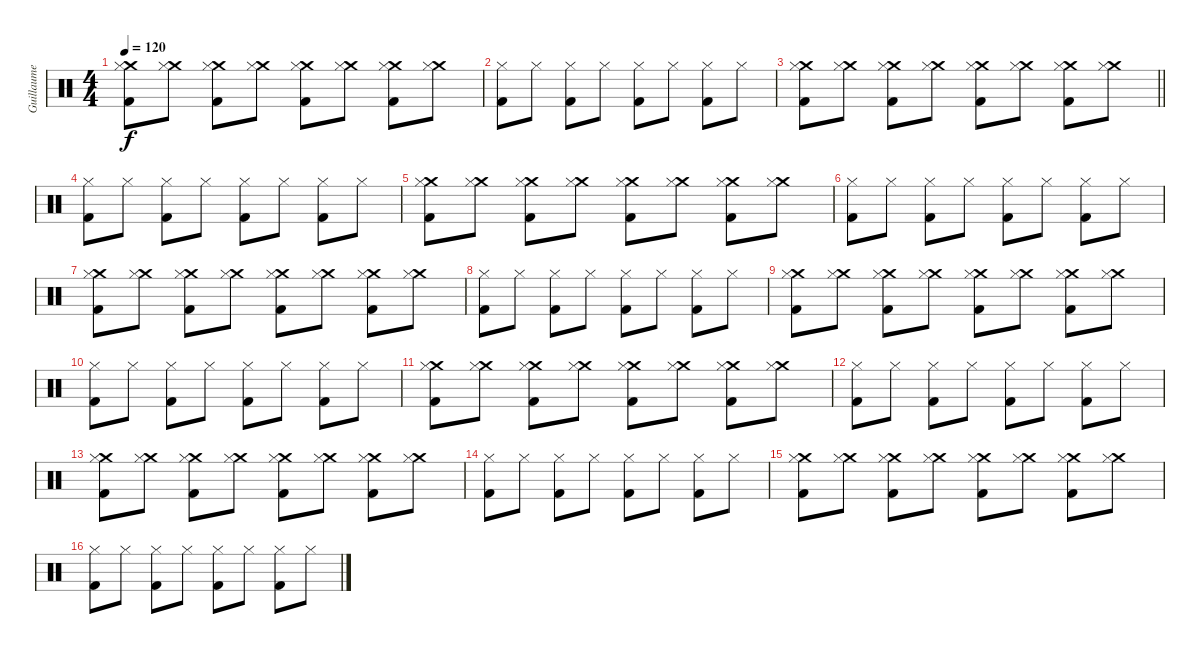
\track ("Guillaume (batterie)" "Guillaume ") {instrument percussion}
\staff {score}
\articulation defaults
\ts (4 4)
\tempo 120
\clef neutral
\ks c
("Crash medium (hit)" "Hi-Hat (closed)" "Kick (hit) 2").8{dy f volume 9} ("Crash medium (hit)" "Hi-Hat (closed)").8 ("Crash medium (hit)" "Hi-Hat (closed)" "Kick (hit) 2").8{volume 11} ("Crash medium (hit)" "Hi-Hat (closed)").8 ("Crash medium (hit)" "Hi-Hat (closed)" "Kick (hit) 2").8{volume 12} ("Crash medium (hit)" "Hi-Hat (closed)").8 ("Crash medium (hit)" "Hi-Hat (closed)" "Kick (hit) 2").8{volume 15} ("Crash medium (hit)" "Hi-Hat (closed)").8 |
("Hi-Hat (closed)" "Kick (hit) 2").8{volume 9} "Hi-Hat (closed)".8 ("Hi-Hat (closed)" "Kick (hit) 2").8 "Hi-Hat (closed)".8 ("Hi-Hat (closed)" "Kick (hit) 2").8 "Hi-Hat (closed)".8 ("Hi-Hat (closed)" "Kick (hit) 2").8 "Hi-Hat (closed)".8 |
\barLineRight lightlight
("Crash medium (hit)" "Hi-Hat (closed)" "Kick (hit) 2").8{volume 9} ("Crash medium (hit)" "Hi-Hat (closed)").8 ("Crash medium (hit)" "Hi-Hat (closed)" "Kick (hit) 2").8{volume 11} ("Crash medium (hit)" "Hi-Hat (closed)").8 ("Crash medium (hit)" "Hi-Hat (closed)" "Kick (hit) 2").8{volume 12} ("Crash medium (hit)" "Hi-Hat (closed)").8 ("Crash medium (hit)" "Hi-Hat (closed)" "Kick (hit) 2").8{volume 15} ("Crash medium (hit)" "Hi-Hat (closed)").8 |
("Hi-Hat (closed)" "Kick (hit) 2").8{volume 9} "Hi-Hat (closed)".8 ("Hi-Hat (closed)" "Kick (hit) 2").8 "Hi-Hat (closed)".8 ("Hi-Hat (closed)" "Kick (hit) 2").8 "Hi-Hat (closed)".8 ("Hi-Hat (closed)" "Kick (hit) 2").8 "Hi-Hat (closed)".8 |
("Crash medium (hit)" "Hi-Hat (closed)" "Kick (hit) 2").8{volume 9} ("Crash medium (hit)" "Hi-Hat (closed)").8 ("Crash medium (hit)" "Hi-Hat (closed)" "Kick (hit) 2").8{volume 11} ("Crash medium (hit)" "Hi-Hat (closed)").8 ("Crash medium (hit)" "Hi-Hat (closed)" "Kick (hit) 2").8{volume 12} ("Crash medium (hit)" "Hi-Hat (closed)").8 ("Crash medium (hit)" "Hi-Hat (closed)" "Kick (hit) 2").8{volume 15} ("Crash medium (hit)" "Hi-Hat (closed)").8 |
("Hi-Hat (closed)" "Kick (hit) 2").8{volume 9} "Hi-Hat (closed)".8 ("Hi-Hat (closed)" "Kick (hit) 2").8 "Hi-Hat (closed)".8 ("Hi-Hat (closed)" "Kick (hit) 2").8 "Hi-Hat (closed)".8 ("Hi-Hat (closed)" "Kick (hit) 2").8 "Hi-Hat (closed)".8 |
("Crash medium (hit)" "Hi-Hat (closed)" "Kick (hit) 2").8{volume 9} ("Crash medium (hit)" "Hi-Hat (closed)").8 ("Crash medium (hit)" "Hi-Hat (closed)" "Kick (hit) 2").8{volume 11} ("Crash medium (hit)" "Hi-Hat (closed)").8 ("Crash medium (hit)" "Hi-Hat (closed)" "Kick (hit) 2").8{volume 12} ("Crash medium (hit)" "Hi-Hat (closed)").8 ("Crash medium (hit)" "Hi-Hat (closed)" "Kick (hit) 2").8{volume 15} ("Crash medium (hit)" "Hi-Hat (closed)").8 |
("Hi-Hat (closed)" "Kick (hit) 2").8{volume 9} "Hi-Hat (closed)".8 ("Hi-Hat (closed)" "Kick (hit) 2").8 "Hi-Hat (closed)".8 ("Hi-Hat (closed)" "Kick (hit) 2").8 "Hi-Hat (closed)".8 ("Hi-Hat (closed)" "Kick (hit) 2").8 "Hi-Hat (closed)".8 |
("Crash medium (hit)" "Hi-Hat (closed)" "Kick (hit) 2").8{volume 9} ("Crash medium (hit)" "Hi-Hat (closed)").8 ("Crash medium (hit)" "Hi-Hat (closed)" "Kick (hit) 2").8{volume 11} ("Crash medium (hit)" "Hi-Hat (closed)").8 ("Crash medium (hit)" "Hi-Hat (closed)" "Kick (hit) 2").8{volume 12} ("Crash medium (hit)" "Hi-Hat (closed)").8 ("Crash medium (hit)" "Hi-Hat (closed)" "Kick (hit) 2").8{volume 15} ("Crash medium (hit)" "Hi-Hat (closed)").8 |
("Hi-Hat (closed)" "Kick (hit) 2").8{volume 9} "Hi-Hat (closed)".8 ("Hi-Hat (closed)" "Kick (hit) 2").8 "Hi-Hat (closed)".8 ("Hi-Hat (closed)" "Kick (hit) 2").8 "Hi-Hat (closed)".8 ("Hi-Hat (closed)" "Kick (hit) 2").8 "Hi-Hat (closed)".8 |
("Crash medium (hit)" "Hi-Hat (closed)" "Kick (hit) 2").8{volume 9} ("Crash medium (hit)" "Hi-Hat (closed)").8 ("Crash medium (hit)" "Hi-Hat (closed)" "Kick (hit) 2").8{volume 11} ("Crash medium (hit)" "Hi-Hat (closed)").8 ("Crash medium (hit)" "Hi-Hat (closed)" "Kick (hit) 2").8{volume 12} ("Crash medium (hit)" "Hi-Hat (closed)").8 ("Crash medium (hit)" "Hi-Hat (closed)" "Kick (hit) 2").8{volume 15} ("Crash medium (hit)" "Hi-Hat (closed)").8 |
("Hi-Hat (closed)" "Kick (hit) 2").8{volume 9} "Hi-Hat (closed)".8 ("Hi-Hat (closed)" "Kick (hit) 2").8 "Hi-Hat (closed)".8 ("Hi-Hat (closed)" "Kick (hit) 2").8 "Hi-Hat (closed)".8 ("Hi-Hat (closed)" "Kick (hit) 2").8 "Hi-Hat (closed)".8 |
("Crash medium (hit)" "Hi-Hat (closed)" "Kick (hit) 2").8{volume 9} ("Crash medium (hit)" "Hi-Hat (closed)").8 ("Crash medium (hit)" "Hi-Hat (closed)" "Kick (hit) 2").8{volume 11} ("Crash medium (hit)" "Hi-Hat (closed)").8 ("Crash medium (hit)" "Hi-Hat (closed)" "Kick (hit) 2").8{volume 12} ("Crash medium (hit)" "Hi-Hat (closed)").8 ("Crash medium (hit)" "Hi-Hat (closed)" "Kick (hit) 2").8{volume 15} ("Crash medium (hit)" "Hi-Hat (closed)").8 |
("Hi-Hat (closed)" "Kick (hit) 2").8{volume 9} "Hi-Hat (closed)".8 ("Hi-Hat (closed)" "Kick (hit) 2").8 "Hi-Hat (closed)".8 ("Hi-Hat (closed)" "Kick (hit) 2").8 "Hi-Hat (closed)".8 ("Hi-Hat (closed)" "Kick (hit) 2").8 "Hi-Hat (closed)".8 |
("Crash medium (hit)" "Hi-Hat (closed)" "Kick (hit) 2").8{volume 9} ("Crash medium (hit)" "Hi-Hat (closed)").8 ("Crash medium (hit)" "Hi-Hat (closed)" "Kick (hit) 2").8{volume 11} ("Crash medium (hit)" "Hi-Hat (closed)").8 ("Crash medium (hit)" "Hi-Hat (closed)" "Kick (hit) 2").8{volume 12} ("Crash medium (hit)" "Hi-Hat (closed)").8 ("Crash medium (hit)" "Hi-Hat (closed)" "Kick (hit) 2").8{volume 15} ("Crash medium (hit)" "Hi-Hat (closed)").8 |
("Hi-Hat (closed)" "Kick (hit) 2").8{volume 9} "Hi-Hat (closed)".8 ("Hi-Hat (closed)" "Kick (hit) 2").8 "Hi-Hat (closed)".8 ("Hi-Hat (closed)" "Kick (hit) 2").8 "Hi-Hat (closed)".8 ("Hi-Hat (closed)" "Kick (hit) 2").8 "Hi-Hat (closed)".8
